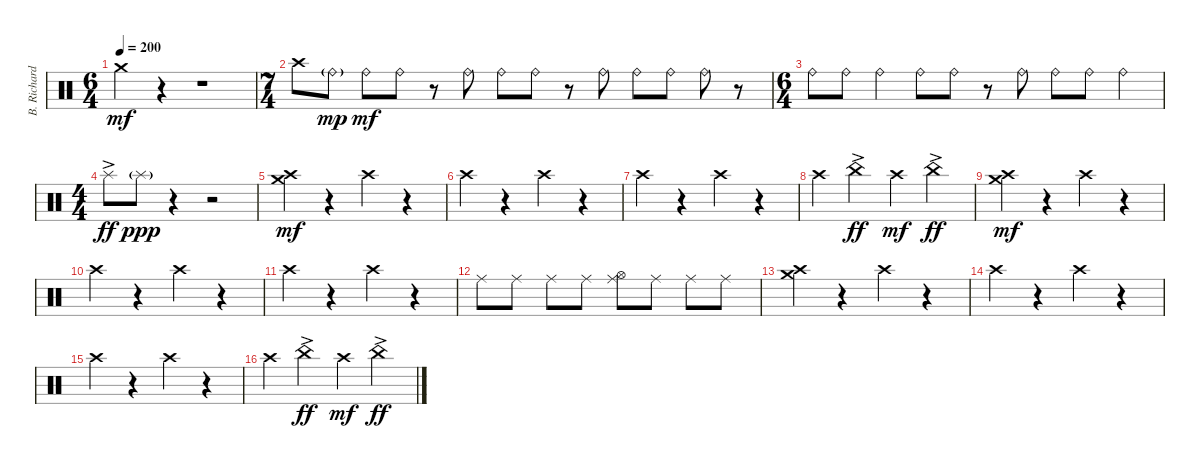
\track ("B. Richardson Drums" "B. Richard") {instrument percussion}
\staff {score}
\articulation defaults
\ts (6 4)
\tempo 200
\clef neutral
\ks c "Crash medium (hit)".4{dy mf}
r.4 r.1 |
\ts (7 4)
"Crash high (hit)".8 "Ride (bell)"{g}.8{dy mp} "Ride (bell)".8{dy mf} "Ride (bell)".8 r.8 "Ride (bell)".8 "Ride (bell)".8 "Ride (bell)".8 r.8 "Ride (bell)".8 "Ride (bell)".8 "Ride (bell)".8 "Ride (bell)".8 r.8 |
\ts (6 4)
"Ride (bell)".8 "Ride (bell)".8 "Ride (bell)".4 "Ride (bell)".8 "Ride (bell)".8 r.8 "Ride (bell)".8 "Ride (bell)".8 "Ride (bell)".8 "Ride (bell)".4 |
\ts (4 4)
"Splash (hit)"{ac}.8{dy ff} "Splash (hit)"{g}.8{dy ppp} r.4 r.2 |
("Crash high (hit)" "Crash medium (hit)").4{dy mf} r.4 "Crash high (hit)".4 r.4 |
"Crash high (hit)".4 r.4 "Crash high (hit)".4 r.4 |
"Crash high (hit)".4 r.4 "Crash high (hit)".4 r.4 |
"Crash high (hit)".4 "China (hit)"{ac}.4{dy ff} "Crash high (hit)".4{dy mf} "China (hit)"{ac}.4{dy ff} |
("Crash high (hit)" "Crash medium (hit)").4{dy mf} r.4 "Crash high (hit)".4 r.4 |
"Crash high (hit)".4 r.4 "Crash high (hit)".4 r.4 |
"Crash high (hit)".4 r.4 "Crash high (hit)".4 r.4 |
"Ride (middle)".8 "Ride (middle)".8 "Ride (middle)".8 "Ride (middle)".8 ("Ride (middle)" "Hi-Hat (open)").8 "Ride (middle)".8 "Ride (middle)".8 "Ride (middle)".8 |
("Crash high (hit)" "Crash medium (hit)").4 r.4 "Crash high (hit)".4 r.4 |
"Crash high (hit)".4 r.4 "Crash high (hit)".4 r.4 |
"Crash high (hit)".4 r.4 "Crash high (hit)".4 r.4 |
"Crash high (hit)".4 "China (hit)"{ac}.4{dy ff} "Crash high (hit)".4{dy mf} "China (hit)"{ac}.4{dy ff}
